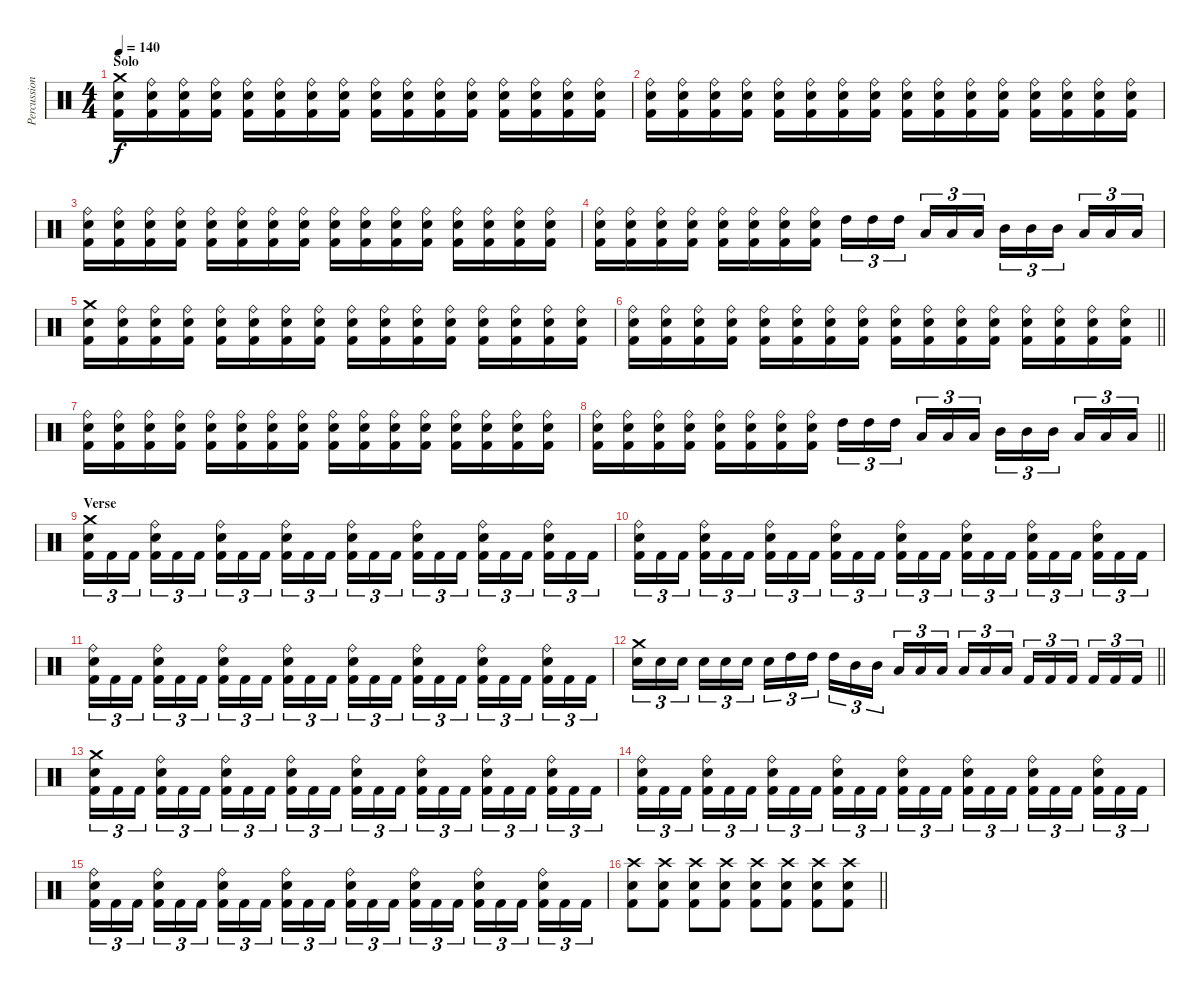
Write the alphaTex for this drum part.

\track ("Percussion" "Percussion") {instrument percussion}
\staff {score}
\articulation defaults
\ts (4 4)
\section ("" "Solo")
\tempo 140
\clef neutral
\ks c
("Crash medium (hit)" "Electric Snare (hit)" "Kick (hit) 2").16{dy f} ("Ride (bell)" "Electric Snare (hit)" "Kick (hit) 2").16 ("Ride (bell)" "Electric Snare (hit)" "Kick (hit) 2").16 ("Ride (bell)" "Electric Snare (hit)" "Kick (hit) 2").16 ("Ride (bell)" "Electric Snare (hit)" "Kick (hit) 2").16 ("Ride (bell)" "Electric Snare (hit)" "Kick (hit) 2").16 ("Ride (bell)" "Electric Snare (hit)" "Kick (hit) 2").16 ("Ride (bell)" "Electric Snare (hit)" "Kick (hit) 2").16 ("Ride (bell)" "Electric Snare (hit)" "Kick (hit) 2").16 ("Ride (bell)" "Electric Snare (hit)" "Kick (hit) 2").16 ("Ride (bell)" "Electric Snare (hit)" "Kick (hit) 2").16 ("Ride (bell)" "Electric Snare (hit)" "Kick (hit) 2").16 ("Ride (bell)" "Electric Snare (hit)" "Kick (hit) 2").16 ("Ride (bell)" "Electric Snare (hit)" "Kick (hit) 2").16 ("Ride (bell)" "Electric Snare (hit)" "Kick (hit) 2").16 ("Ride (bell)" "Electric Snare (hit)" "Kick (hit) 2").16 |
("Ride (bell)" "Electric Snare (hit)" "Kick (hit) 2").16 ("Ride (bell)" "Electric Snare (hit)" "Kick (hit) 2").16 ("Ride (bell)" "Electric Snare (hit)" "Kick (hit) 2").16 ("Ride (bell)" "Electric Snare (hit)" "Kick (hit) 2").16 ("Ride (bell)" "Electric Snare (hit)" "Kick (hit) 2").16 ("Ride (bell)" "Electric Snare (hit)" "Kick (hit) 2").16 ("Ride (bell)" "Electric Snare (hit)" "Kick (hit) 2").16 ("Ride (bell)" "Electric Snare (hit)" "Kick (hit) 2").16 ("Ride (bell)" "Electric Snare (hit)" "Kick (hit) 2").16 ("Ride (bell)" "Electric Snare (hit)" "Kick (hit) 2").16 ("Ride (bell)" "Electric Snare (hit)" "Kick (hit) 2").16 ("Ride (bell)" "Electric Snare (hit)" "Kick (hit) 2").16 ("Ride (bell)" "Electric Snare (hit)" "Kick (hit) 2").16 ("Ride (bell)" "Electric Snare (hit)" "Kick (hit) 2").16 ("Ride (bell)" "Electric Snare (hit)" "Kick (hit) 2").16 ("Ride (bell)" "Electric Snare (hit)" "Kick (hit) 2").16 |
("Ride (bell)" "Electric Snare (hit)" "Kick (hit) 2").16 ("Ride (bell)" "Electric Snare (hit)" "Kick (hit) 2").16 ("Ride (bell)" "Electric Snare (hit)" "Kick (hit) 2").16 ("Ride (bell)" "Electric Snare (hit)" "Kick (hit) 2").16 ("Ride (bell)" "Electric Snare (hit)" "Kick (hit) 2").16 ("Ride (bell)" "Electric Snare (hit)" "Kick (hit) 2").16 ("Ride (bell)" "Electric Snare (hit)" "Kick (hit) 2").16 ("Ride (bell)" "Electric Snare (hit)" "Kick (hit) 2").16 ("Ride (bell)" "Electric Snare (hit)" "Kick (hit) 2").16 ("Ride (bell)" "Electric Snare (hit)" "Kick (hit) 2").16 ("Ride (bell)" "Electric Snare (hit)" "Kick (hit) 2").16 ("Ride (bell)" "Electric Snare (hit)" "Kick (hit) 2").16 ("Ride (bell)" "Electric Snare (hit)" "Kick (hit) 2").16 ("Ride (bell)" "Electric Snare (hit)" "Kick (hit) 2").16 ("Ride (bell)" "Electric Snare (hit)" "Kick (hit) 2").16 ("Ride (bell)" "Electric Snare (hit)" "Kick (hit) 2").16 |
("Ride (bell)" "Electric Snare (hit)" "Kick (hit) 2").16 ("Ride (bell)" "Electric Snare (hit)" "Kick (hit) 2").16 ("Ride (bell)" "Electric Snare (hit)" "Kick (hit) 2").16 ("Ride (bell)" "Electric Snare (hit)" "Kick (hit) 2").16 ("Ride (bell)" "Electric Snare (hit)" "Kick (hit) 2").16 ("Ride (bell)" "Electric Snare (hit)" "Kick (hit) 2").16 ("Ride (bell)" "Electric Snare (hit)" "Kick (hit) 2").16 ("Ride (bell)" "Electric Snare (hit)" "Kick (hit) 2").16 "High Tom (hit)".16{tu (3 2)} "High Tom (hit)".16{tu (3 2)} "High Tom (hit)".16{tu (3 2) beam splitsecondary} "Low Tom (hit)".16{tu (3 2)} "Low Tom (hit)".16{tu (3 2)} "Low Tom (hit)".16{tu (3 2)} "Mid Tom (hit)".16{tu (3 2)} "Mid Tom (hit)".16{tu (3 2)} "Mid Tom (hit)".16{tu (3 2) beam splitsecondary} "Low Floor Tom (hit)".16{tu (3 2)} "Low Floor Tom (hit)".16{tu (3 2)} "Low Floor Tom (hit)".16{tu (3 2)} |
("Crash medium (hit)" "Electric Snare (hit)" "Kick (hit) 2").16 ("Ride (bell)" "Electric Snare (hit)" "Kick (hit) 2").16 ("Ride (bell)" "Electric Snare (hit)" "Kick (hit) 2").16 ("Ride (bell)" "Electric Snare (hit)" "Kick (hit) 2").16 ("Ride (bell)" "Electric Snare (hit)" "Kick (hit) 2").16 ("Ride (bell)" "Electric Snare (hit)" "Kick (hit) 2").16 ("Ride (bell)" "Electric Snare (hit)" "Kick (hit) 2").16 ("Ride (bell)" "Electric Snare (hit)" "Kick (hit) 2").16 ("Ride (bell)" "Electric Snare (hit)" "Kick (hit) 2").16 ("Ride (bell)" "Electric Snare (hit)" "Kick (hit) 2").16 ("Ride (bell)" "Electric Snare (hit)" "Kick (hit) 2").16 ("Ride (bell)" "Electric Snare (hit)" "Kick (hit) 2").16 ("Ride (bell)" "Electric Snare (hit)" "Kick (hit) 2").16 ("Ride (bell)" "Electric Snare (hit)" "Kick (hit) 2").16 ("Ride (bell)" "Electric Snare (hit)" "Kick (hit) 2").16 ("Ride (bell)" "Electric Snare (hit)" "Kick (hit) 2").16 |
\barLineRight lightlight
("Ride (bell)" "Electric Snare (hit)" "Kick (hit) 2").16 ("Ride (bell)" "Electric Snare (hit)" "Kick (hit) 2").16 ("Ride (bell)" "Electric Snare (hit)" "Kick (hit) 2").16 ("Ride (bell)" "Electric Snare (hit)" "Kick (hit) 2").16 ("Ride (bell)" "Electric Snare (hit)" "Kick (hit) 2").16 ("Ride (bell)" "Electric Snare (hit)" "Kick (hit) 2").16 ("Ride (bell)" "Electric Snare (hit)" "Kick (hit) 2").16 ("Ride (bell)" "Electric Snare (hit)" "Kick (hit) 2").16 ("Ride (bell)" "Electric Snare (hit)" "Kick (hit) 2").16 ("Ride (bell)" "Electric Snare (hit)" "Kick (hit) 2").16 ("Ride (bell)" "Electric Snare (hit)" "Kick (hit) 2").16 ("Ride (bell)" "Electric Snare (hit)" "Kick (hit) 2").16 ("Ride (bell)" "Electric Snare (hit)" "Kick (hit) 2").16 ("Ride (bell)" "Electric Snare (hit)" "Kick (hit) 2").16 ("Ride (bell)" "Electric Snare (hit)" "Kick (hit) 2").16 ("Ride (bell)" "Electric Snare (hit)" "Kick (hit) 2").16 |
("Ride (bell)" "Electric Snare (hit)" "Kick (hit) 2").16 ("Ride (bell)" "Electric Snare (hit)" "Kick (hit) 2").16 ("Ride (bell)" "Electric Snare (hit)" "Kick (hit) 2").16 ("Ride (bell)" "Electric Snare (hit)" "Kick (hit) 2").16 ("Ride (bell)" "Electric Snare (hit)" "Kick (hit) 2").16 ("Ride (bell)" "Electric Snare (hit)" "Kick (hit) 2").16 ("Ride (bell)" "Electric Snare (hit)" "Kick (hit) 2").16 ("Ride (bell)" "Electric Snare (hit)" "Kick (hit) 2").16 ("Ride (bell)" "Electric Snare (hit)" "Kick (hit) 2").16 ("Ride (bell)" "Electric Snare (hit)" "Kick (hit) 2").16 ("Ride (bell)" "Electric Snare (hit)" "Kick (hit) 2").16 ("Ride (bell)" "Electric Snare (hit)" "Kick (hit) 2").16 ("Ride (bell)" "Electric Snare (hit)" "Kick (hit) 2").16 ("Ride (bell)" "Electric Snare (hit)" "Kick (hit) 2").16 ("Ride (bell)" "Electric Snare (hit)" "Kick (hit) 2").16 ("Ride (bell)" "Electric Snare (hit)" "Kick (hit) 2").16 |
\barLineRight lightlight
("Ride (bell)" "Electric Snare (hit)" "Kick (hit) 2").16 ("Ride (bell)" "Electric Snare (hit)" "Kick (hit) 2").16 ("Ride (bell)" "Electric Snare (hit)" "Kick (hit) 2").16 ("Ride (bell)" "Electric Snare (hit)" "Kick (hit) 2").16 ("Ride (bell)" "Electric Snare (hit)" "Kick (hit) 2").16 ("Ride (bell)" "Electric Snare (hit)" "Kick (hit) 2").16 ("Ride (bell)" "Electric Snare (hit)" "Kick (hit) 2").16 ("Ride (bell)" "Electric Snare (hit)" "Kick (hit) 2").16 "High Tom (hit)".16{tu (3 2)} "High Tom (hit)".16{tu (3 2)} "High Tom (hit)".16{tu (3 2) beam splitsecondary} "Low Tom (hit)".16{tu (3 2)} "Low Tom (hit)".16{tu (3 2)} "Low Tom (hit)".16{tu (3 2)} "Mid Tom (hit)".16{tu (3 2)} "Mid Tom (hit)".16{tu (3 2)} "Mid Tom (hit)".16{tu (3 2) beam splitsecondary} "Low Floor Tom (hit)".16{tu (3 2)} "Low Floor Tom (hit)".16{tu (3 2)} "Low Floor Tom (hit)".16{tu (3 2)} |
\section ("" "Verse")
("Crash medium (hit)" "Electric Snare (hit)" "Kick (hit) 2").16{tu (3 2)} "Kick (hit) 2".16{tu (3 2)} "Kick (hit) 2".16{tu (3 2) beam splitsecondary} ("Ride (bell)" "Electric Snare (hit)" "Kick (hit) 2").16{tu (3 2)} "Kick (hit) 2".16{tu (3 2)} "Kick (hit) 2".16{tu (3 2)} ("Ride (bell)" "Electric Snare (hit)" "Kick (hit) 2").16{tu (3 2)} "Kick (hit) 2".16{tu (3 2)} "Kick (hit) 2".16{tu (3 2) beam splitsecondary} ("Ride (bell)" "Electric Snare (hit)" "Kick (hit) 2").16{tu (3 2)} "Kick (hit) 2".16{tu (3 2)} "Kick (hit) 2".16{tu (3 2)} ("Ride (bell)" "Electric Snare (hit)" "Kick (hit) 2").16{tu (3 2)} "Kick (hit) 2".16{tu (3 2)} "Kick (hit) 2".16{tu (3 2) beam splitsecondary} ("Ride (bell)" "Electric Snare (hit)" "Kick (hit) 2").16{tu (3 2)} "Kick (hit) 2".16{tu (3 2)} "Kick (hit) 2".16{tu (3 2)} ("Ride (bell)" "Electric Snare (hit)" "Kick (hit) 2").16{tu (3 2)} "Kick (hit) 2".16{tu (3 2)} "Kick (hit) 2".16{tu (3 2) beam splitsecondary} ("Ride (bell)" "Electric Snare (hit)" "Kick (hit) 2").16{tu (3 2)} "Kick (hit) 2".16{tu (3 2)} "Kick (hit) 2".16{tu (3 2)} |
("Ride (bell)" "Electric Snare (hit)" "Kick (hit) 2").16{tu (3 2)} "Kick (hit) 2".16{tu (3 2)} "Kick (hit) 2".16{tu (3 2) beam splitsecondary} ("Ride (bell)" "Electric Snare (hit)" "Kick (hit) 2").16{tu (3 2)} "Kick (hit) 2".16{tu (3 2)} "Kick (hit) 2".16{tu (3 2)} ("Ride (bell)" "Electric Snare (hit)" "Kick (hit) 2").16{tu (3 2)} "Kick (hit) 2".16{tu (3 2)} "Kick (hit) 2".16{tu (3 2) beam splitsecondary} ("Ride (bell)" "Electric Snare (hit)" "Kick (hit) 2").16{tu (3 2)} "Kick (hit) 2".16{tu (3 2)} "Kick (hit) 2".16{tu (3 2)} ("Ride (bell)" "Electric Snare (hit)" "Kick (hit) 2").16{tu (3 2)} "Kick (hit) 2".16{tu (3 2)} "Kick (hit) 2".16{tu (3 2) beam splitsecondary} ("Ride (bell)" "Electric Snare (hit)" "Kick (hit) 2").16{tu (3 2)} "Kick (hit) 2".16{tu (3 2)} "Kick (hit) 2".16{tu (3 2)} ("Ride (bell)" "Electric Snare (hit)" "Kick (hit) 2").16{tu (3 2)} "Kick (hit) 2".16{tu (3 2)} "Kick (hit) 2".16{tu (3 2) beam splitsecondary} ("Ride (bell)" "Electric Snare (hit)" "Kick (hit) 2").16{tu (3 2)} "Kick (hit) 2".16{tu (3 2)} "Kick (hit) 2".16{tu (3 2)} |
("Ride (bell)" "Electric Snare (hit)" "Kick (hit) 2").16{tu (3 2)} "Kick (hit) 2".16{tu (3 2)} "Kick (hit) 2".16{tu (3 2) beam splitsecondary} ("Ride (bell)" "Electric Snare (hit)" "Kick (hit) 2").16{tu (3 2)} "Kick (hit) 2".16{tu (3 2)} "Kick (hit) 2".16{tu (3 2)} ("Ride (bell)" "Electric Snare (hit)" "Kick (hit) 2").16{tu (3 2)} "Kick (hit) 2".16{tu (3 2)} "Kick (hit) 2".16{tu (3 2) beam splitsecondary} ("Ride (bell)" "Electric Snare (hit)" "Kick (hit) 2").16{tu (3 2)} "Kick (hit) 2".16{tu (3 2)} "Kick (hit) 2".16{tu (3 2)} ("Ride (bell)" "Electric Snare (hit)" "Kick (hit) 2").16{tu (3 2)} "Kick (hit) 2".16{tu (3 2)} "Kick (hit) 2".16{tu (3 2) beam splitsecondary} ("Ride (bell)" "Electric Snare (hit)" "Kick (hit) 2").16{tu (3 2)} "Kick (hit) 2".16{tu (3 2)} "Kick (hit) 2".16{tu (3 2)} ("Ride (bell)" "Electric Snare (hit)" "Kick (hit) 2").16{tu (3 2)} "Kick (hit) 2".16{tu (3 2)} "Kick (hit) 2".16{tu (3 2) beam splitsecondary} ("Ride (bell)" "Electric Snare (hit)" "Kick (hit) 2").16{tu (3 2)} "Kick (hit) 2".16{tu (3 2)} "Kick (hit) 2".16{tu (3 2)} |
\barLineRight lightlight
("Crash medium (hit)" "Electric Snare (hit)").16{tu (3 2)} "Electric Snare (hit)".16{tu (3 2)} "Electric Snare (hit)".16{tu (3 2) beam splitsecondary} "Electric Snare (hit)".16{tu (3 2)} "Electric Snare (hit)".16{tu (3 2)} "Electric Snare (hit)".16{tu (3 2)} "Electric Snare (hit)".16{tu (3 2)} "High Tom (hit)".16{tu (3 2)} "High Tom (hit)".16{tu (3 2) beam splitsecondary} "High Tom (hit)".16{tu (3 2)} "Mid Tom (hit)".16{tu (3 2)} "Mid Tom (hit)".16{tu (3 2)} "Low Tom (hit)".16{tu (3 2)} "Low Tom (hit)".16{tu (3 2)} "Low Tom (hit)".16{tu (3 2) beam splitsecondary} "Low Floor Tom (hit)".16{tu (3 2)} "Low Floor Tom (hit)".16{tu (3 2)} "Low Floor Tom (hit)".16{tu (3 2)} "Kick (hit) 2".16{tu (3 2)} "Kick (hit) 2".16{tu (3 2)} "Kick (hit) 2".16{tu (3 2) beam splitsecondary} "Kick (hit) 2".16{tu (3 2)} "Kick (hit) 2".16{tu (3 2)} "Kick (hit) 2".16{tu (3 2)} |
("Crash medium (hit)" "Electric Snare (hit)" "Kick (hit) 2").16{tu (3 2)} "Kick (hit) 2".16{tu (3 2)} "Kick (hit) 2".16{tu (3 2) beam splitsecondary} ("Ride (bell)" "Electric Snare (hit)" "Kick (hit) 2").16{tu (3 2)} "Kick (hit) 2".16{tu (3 2)} "Kick (hit) 2".16{tu (3 2)} ("Ride (bell)" "Electric Snare (hit)" "Kick (hit) 2").16{tu (3 2)} "Kick (hit) 2".16{tu (3 2)} "Kick (hit) 2".16{tu (3 2) beam splitsecondary} ("Ride (bell)" "Electric Snare (hit)" "Kick (hit) 2").16{tu (3 2)} "Kick (hit) 2".16{tu (3 2)} "Kick (hit) 2".16{tu (3 2)} ("Ride (bell)" "Electric Snare (hit)" "Kick (hit) 2").16{tu (3 2)} "Kick (hit) 2".16{tu (3 2)} "Kick (hit) 2".16{tu (3 2) beam splitsecondary} ("Ride (bell)" "Electric Snare (hit)" "Kick (hit) 2").16{tu (3 2)} "Kick (hit) 2".16{tu (3 2)} "Kick (hit) 2".16{tu (3 2)} ("Ride (bell)" "Electric Snare (hit)" "Kick (hit) 2").16{tu (3 2)} "Kick (hit) 2".16{tu (3 2)} "Kick (hit) 2".16{tu (3 2) beam splitsecondary} ("Ride (bell)" "Electric Snare (hit)" "Kick (hit) 2").16{tu (3 2)} "Kick (hit) 2".16{tu (3 2)} "Kick (hit) 2".16{tu (3 2)} |
("Ride (bell)" "Electric Snare (hit)" "Kick (hit) 2").16{tu (3 2)} "Kick (hit) 2".16{tu (3 2)} "Kick (hit) 2".16{tu (3 2) beam splitsecondary} ("Ride (bell)" "Electric Snare (hit)" "Kick (hit) 2").16{tu (3 2)} "Kick (hit) 2".16{tu (3 2)} "Kick (hit) 2".16{tu (3 2)} ("Ride (bell)" "Electric Snare (hit)" "Kick (hit) 2").16{tu (3 2)} "Kick (hit) 2".16{tu (3 2)} "Kick (hit) 2".16{tu (3 2) beam splitsecondary} ("Ride (bell)" "Electric Snare (hit)" "Kick (hit) 2").16{tu (3 2)} "Kick (hit) 2".16{tu (3 2)} "Kick (hit) 2".16{tu (3 2)} ("Ride (bell)" "Electric Snare (hit)" "Kick (hit) 2").16{tu (3 2)} "Kick (hit) 2".16{tu (3 2)} "Kick (hit) 2".16{tu (3 2) beam splitsecondary} ("Ride (bell)" "Electric Snare (hit)" "Kick (hit) 2").16{tu (3 2)} "Kick (hit) 2".16{tu (3 2)} "Kick (hit) 2".16{tu (3 2)} ("Ride (bell)" "Electric Snare (hit)" "Kick (hit) 2").16{tu (3 2)} "Kick (hit) 2".16{tu (3 2)} "Kick (hit) 2".16{tu (3 2) beam splitsecondary} ("Ride (bell)" "Electric Snare (hit)" "Kick (hit) 2").16{tu (3 2)} "Kick (hit) 2".16{tu (3 2)} "Kick (hit) 2".16{tu (3 2)} |
("Ride (bell)" "Electric Snare (hit)" "Kick (hit) 2").16{tu (3 2)} "Kick (hit) 2".16{tu (3 2)} "Kick (hit) 2".16{tu (3 2) beam splitsecondary} ("Ride (bell)" "Electric Snare (hit)" "Kick (hit) 2").16{tu (3 2)} "Kick (hit) 2".16{tu (3 2)} "Kick (hit) 2".16{tu (3 2)} ("Ride (bell)" "Electric Snare (hit)" "Kick (hit) 2").16{tu (3 2)} "Kick (hit) 2".16{tu (3 2)} "Kick (hit) 2".16{tu (3 2) beam splitsecondary} ("Ride (bell)" "Electric Snare (hit)" "Kick (hit) 2").16{tu (3 2)} "Kick (hit) 2".16{tu (3 2)} "Kick (hit) 2".16{tu (3 2)} ("Ride (bell)" "Electric Snare (hit)" "Kick (hit) 2").16{tu (3 2)} "Kick (hit) 2".16{tu (3 2)} "Kick (hit) 2".16{tu (3 2) beam splitsecondary} ("Ride (bell)" "Electric Snare (hit)" "Kick (hit) 2").16{tu (3 2)} "Kick (hit) 2".16{tu (3 2)} "Kick (hit) 2".16{tu (3 2)} ("Ride (bell)" "Electric Snare (hit)" "Kick (hit) 2").16{tu (3 2)} "Kick (hit) 2".16{tu (3 2)} "Kick (hit) 2".16{tu (3 2) beam splitsecondary} ("Ride (bell)" "Electric Snare (hit)" "Kick (hit) 2").16{tu (3 2)} "Kick (hit) 2".16{tu (3 2)} "Kick (hit) 2".16{tu (3 2)} |
\barLineRight lightlight
("Crash high (hit)" "Electric Snare (hit)" "Kick (hit) 2").8 ("Crash high (hit)" "Electric Snare (hit)" "Kick (hit) 2").8 ("Crash high (hit)" "Electric Snare (hit)" "Kick (hit) 2").8 ("Crash high (hit)" "Electric Snare (hit)" "Kick (hit) 2").8 ("Crash high (hit)" "Electric Snare (hit)" "Kick (hit) 2").8 ("Crash high (hit)" "Electric Snare (hit)" "Kick (hit) 2").8 ("Crash high (hit)" "Electric Snare (hit)" "Kick (hit) 2").8 ("Crash high (hit)" "Electric Snare (hit)" "Kick (hit) 2").8
